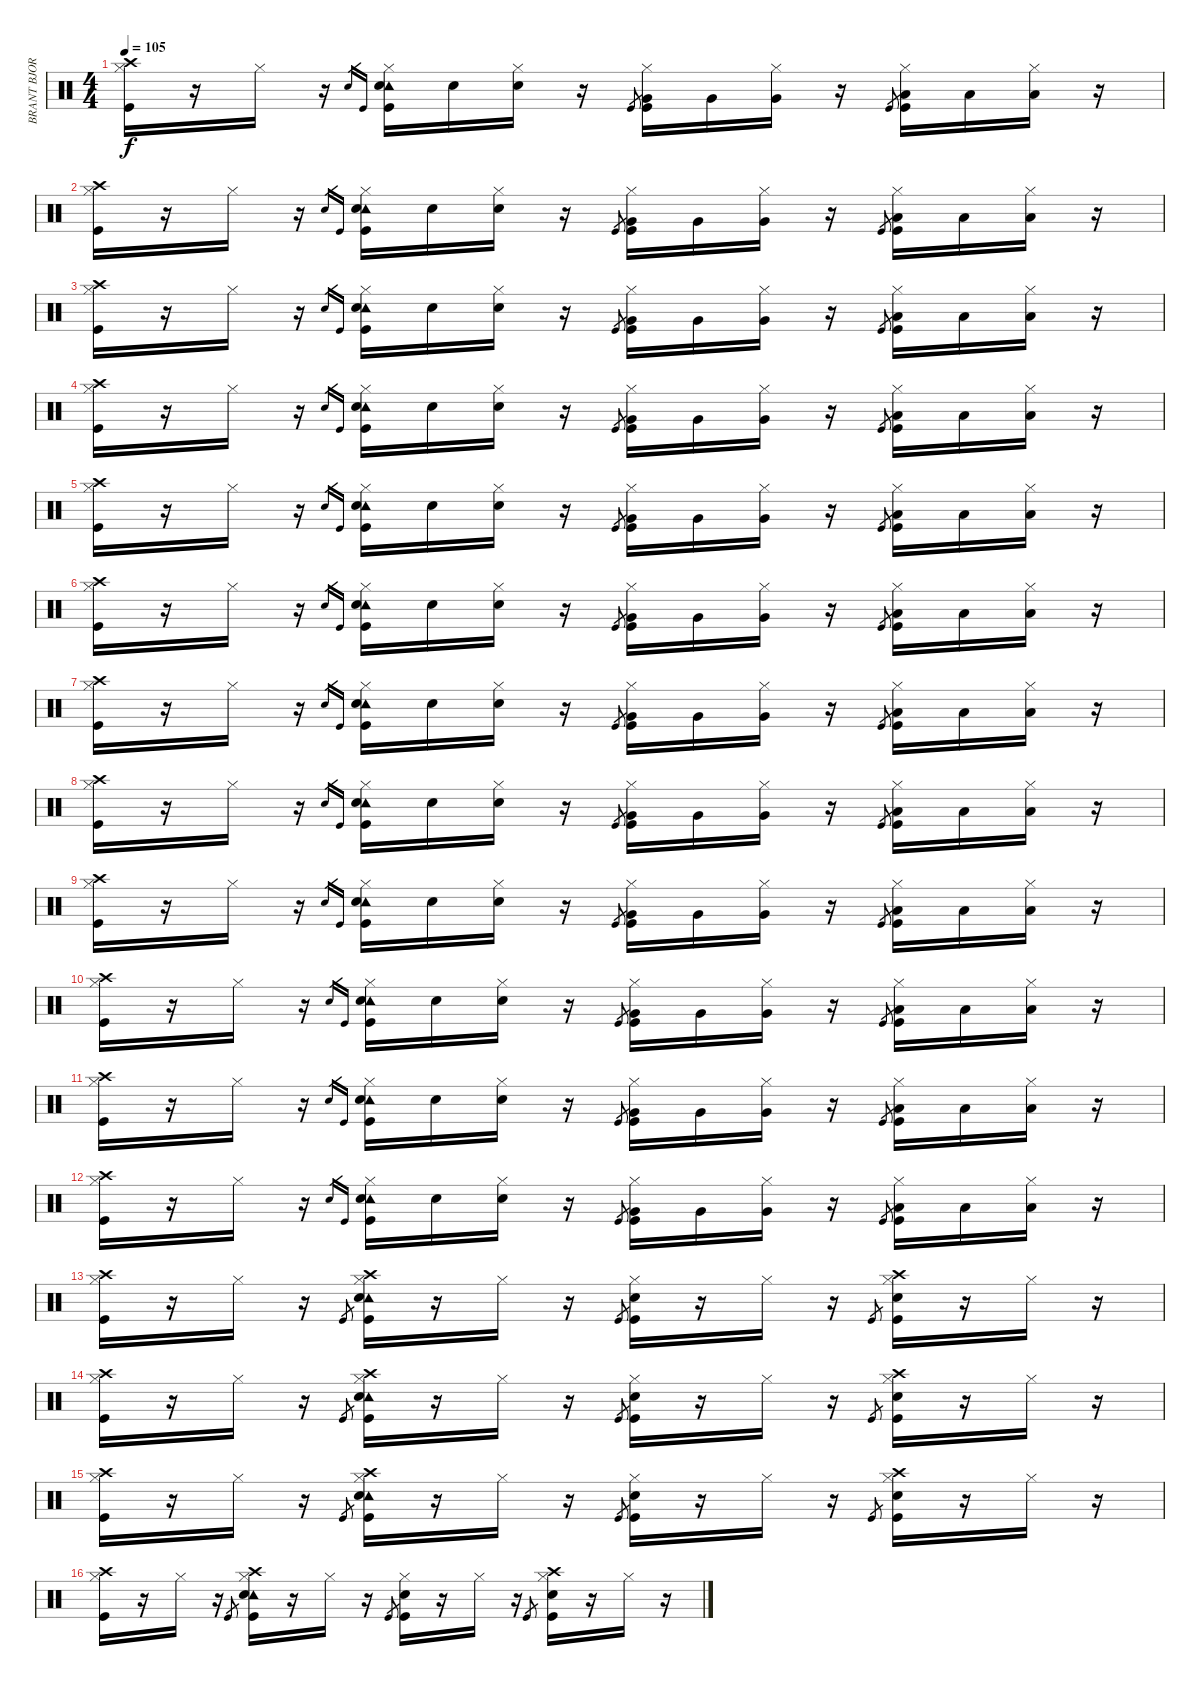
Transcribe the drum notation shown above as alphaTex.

\track ("BRANT BJORK -  DRUMS" "BRANT BJOR") {instrument percussion}
\staff {score}
\articulation defaults
\ts (4 4)
\tempo 105
\clef neutral
\ks c
("Crash high (hit)" "Hi-Hat (closed)" "Kick (hit)").16{dy f} r.16 "Hi-Hat (closed)".16 r.16 "Snare (hit) 2".16{gr} "Kick (hit)".16{gr} ("Tambourine (hit)" "Hi-Hat (closed)" "Snare (hit) 2" "Kick (hit)").16 "Snare (hit) 2".16 ("Hi-Hat (closed)" "Snare (hit) 2").16 r.16 "Kick (hit)".8{gr} ("Hi-Hat (closed)" "Very Low Tom (hit)" "Kick (hit)").16 "Very Low Tom (hit)".16 ("Hi-Hat (closed)" "Very Low Tom (hit)").16 r.16 "Kick (hit)".8{gr} ("Hi-Hat (closed)" "Low Floor Tom (hit)" "Kick (hit)").16 "Low Floor Tom (hit)".16 ("Hi-Hat (closed)" "Low Floor Tom (hit)").16 r.16 |
("Crash high (hit)" "Hi-Hat (closed)" "Kick (hit)").16 r.16 "Hi-Hat (closed)".16 r.16 "Snare (hit) 2".16{gr} "Kick (hit)".16{gr} ("Tambourine (hit)" "Hi-Hat (closed)" "Snare (hit) 2" "Kick (hit)").16 "Snare (hit) 2".16 ("Hi-Hat (closed)" "Snare (hit) 2").16 r.16 "Kick (hit)".8{gr} ("Hi-Hat (closed)" "Very Low Tom (hit)" "Kick (hit)").16 "Very Low Tom (hit)".16 ("Hi-Hat (closed)" "Very Low Tom (hit)").16 r.16 "Kick (hit)".8{gr} ("Hi-Hat (closed)" "Low Floor Tom (hit)" "Kick (hit)").16 "Low Floor Tom (hit)".16 ("Hi-Hat (closed)" "Low Floor Tom (hit)").16 r.16 |
("Crash high (hit)" "Hi-Hat (closed)" "Kick (hit)").16 r.16 "Hi-Hat (closed)".16 r.16 "Snare (hit) 2".16{gr} "Kick (hit)".16{gr} ("Tambourine (hit)" "Hi-Hat (closed)" "Snare (hit) 2" "Kick (hit)").16 "Snare (hit) 2".16 ("Hi-Hat (closed)" "Snare (hit) 2").16 r.16 "Kick (hit)".8{gr} ("Hi-Hat (closed)" "Very Low Tom (hit)" "Kick (hit)").16 "Very Low Tom (hit)".16 ("Hi-Hat (closed)" "Very Low Tom (hit)").16 r.16 "Kick (hit)".8{gr} ("Hi-Hat (closed)" "Low Floor Tom (hit)" "Kick (hit)").16 "Low Floor Tom (hit)".16 ("Hi-Hat (closed)" "Low Floor Tom (hit)").16 r.16 |
("Crash high (hit)" "Hi-Hat (closed)" "Kick (hit)").16 r.16 "Hi-Hat (closed)".16 r.16 "Snare (hit) 2".16{gr} "Kick (hit)".16{gr} ("Tambourine (hit)" "Hi-Hat (closed)" "Snare (hit) 2" "Kick (hit)").16 "Snare (hit) 2".16 ("Hi-Hat (closed)" "Snare (hit) 2").16 r.16 "Kick (hit)".8{gr} ("Hi-Hat (closed)" "Very Low Tom (hit)" "Kick (hit)").16 "Very Low Tom (hit)".16 ("Hi-Hat (closed)" "Very Low Tom (hit)").16 r.16 "Kick (hit)".8{gr} ("Hi-Hat (closed)" "Low Floor Tom (hit)" "Kick (hit)").16 "Low Floor Tom (hit)".16 ("Hi-Hat (closed)" "Low Floor Tom (hit)").16 r.16 |
("Crash high (hit)" "Hi-Hat (closed)" "Kick (hit)").16 r.16 "Hi-Hat (closed)".16 r.16 "Snare (hit) 2".16{gr} "Kick (hit)".16{gr} ("Tambourine (hit)" "Hi-Hat (closed)" "Snare (hit) 2" "Kick (hit)").16 "Snare (hit) 2".16 ("Hi-Hat (closed)" "Snare (hit) 2").16 r.16 "Kick (hit)".8{gr} ("Hi-Hat (closed)" "Very Low Tom (hit)" "Kick (hit)").16 "Very Low Tom (hit)".16 ("Hi-Hat (closed)" "Very Low Tom (hit)").16 r.16 "Kick (hit)".8{gr} ("Hi-Hat (closed)" "Low Floor Tom (hit)" "Kick (hit)").16 "Low Floor Tom (hit)".16 ("Hi-Hat (closed)" "Low Floor Tom (hit)").16 r.16 |
("Crash high (hit)" "Hi-Hat (closed)" "Kick (hit)").16 r.16 "Hi-Hat (closed)".16 r.16 "Snare (hit) 2".16{gr} "Kick (hit)".16{gr} ("Tambourine (hit)" "Hi-Hat (closed)" "Snare (hit) 2" "Kick (hit)").16 "Snare (hit) 2".16 ("Hi-Hat (closed)" "Snare (hit) 2").16 r.16 "Kick (hit)".8{gr} ("Hi-Hat (closed)" "Very Low Tom (hit)" "Kick (hit)").16 "Very Low Tom (hit)".16 ("Hi-Hat (closed)" "Very Low Tom (hit)").16 r.16 "Kick (hit)".8{gr} ("Hi-Hat (closed)" "Low Floor Tom (hit)" "Kick (hit)").16 "Low Floor Tom (hit)".16 ("Hi-Hat (closed)" "Low Floor Tom (hit)").16 r.16 |
("Crash high (hit)" "Hi-Hat (closed)" "Kick (hit)").16 r.16 "Hi-Hat (closed)".16 r.16 "Snare (hit) 2".16{gr} "Kick (hit)".16{gr} ("Tambourine (hit)" "Hi-Hat (closed)" "Snare (hit) 2" "Kick (hit)").16 "Snare (hit) 2".16 ("Hi-Hat (closed)" "Snare (hit) 2").16 r.16 "Kick (hit)".8{gr} ("Hi-Hat (closed)" "Very Low Tom (hit)" "Kick (hit)").16 "Very Low Tom (hit)".16 ("Hi-Hat (closed)" "Very Low Tom (hit)").16 r.16 "Kick (hit)".8{gr} ("Hi-Hat (closed)" "Low Floor Tom (hit)" "Kick (hit)").16 "Low Floor Tom (hit)".16 ("Hi-Hat (closed)" "Low Floor Tom (hit)").16 r.16 |
("Crash high (hit)" "Hi-Hat (closed)" "Kick (hit)").16 r.16 "Hi-Hat (closed)".16 r.16 "Snare (hit) 2".16{gr} "Kick (hit)".16{gr} ("Tambourine (hit)" "Hi-Hat (closed)" "Snare (hit) 2" "Kick (hit)").16 "Snare (hit) 2".16 ("Hi-Hat (closed)" "Snare (hit) 2").16 r.16 "Kick (hit)".8{gr} ("Hi-Hat (closed)" "Very Low Tom (hit)" "Kick (hit)").16 "Very Low Tom (hit)".16 ("Hi-Hat (closed)" "Very Low Tom (hit)").16 r.16 "Kick (hit)".8{gr} ("Hi-Hat (closed)" "Low Floor Tom (hit)" "Kick (hit)").16 "Low Floor Tom (hit)".16 ("Hi-Hat (closed)" "Low Floor Tom (hit)").16 r.16 |
("Crash high (hit)" "Hi-Hat (closed)" "Kick (hit)").16 r.16 "Hi-Hat (closed)".16 r.16 "Snare (hit) 2".16{gr} "Kick (hit)".16{gr} ("Tambourine (hit)" "Hi-Hat (closed)" "Snare (hit) 2" "Kick (hit)").16 "Snare (hit) 2".16 ("Hi-Hat (closed)" "Snare (hit) 2").16 r.16 "Kick (hit)".8{gr} ("Hi-Hat (closed)" "Very Low Tom (hit)" "Kick (hit)").16 "Very Low Tom (hit)".16 ("Hi-Hat (closed)" "Very Low Tom (hit)").16 r.16 "Kick (hit)".8{gr} ("Hi-Hat (closed)" "Low Floor Tom (hit)" "Kick (hit)").16 "Low Floor Tom (hit)".16 ("Hi-Hat (closed)" "Low Floor Tom (hit)").16 r.16 |
("Crash high (hit)" "Hi-Hat (closed)" "Kick (hit)").16 r.16 "Hi-Hat (closed)".16 r.16 "Snare (hit) 2".16{gr} "Kick (hit)".16{gr} ("Tambourine (hit)" "Hi-Hat (closed)" "Snare (hit) 2" "Kick (hit)").16 "Snare (hit) 2".16 ("Hi-Hat (closed)" "Snare (hit) 2").16 r.16 "Kick (hit)".8{gr} ("Hi-Hat (closed)" "Very Low Tom (hit)" "Kick (hit)").16 "Very Low Tom (hit)".16 ("Hi-Hat (closed)" "Very Low Tom (hit)").16 r.16 "Kick (hit)".8{gr} ("Hi-Hat (closed)" "Low Floor Tom (hit)" "Kick (hit)").16 "Low Floor Tom (hit)".16 ("Hi-Hat (closed)" "Low Floor Tom (hit)").16 r.16 |
("Crash high (hit)" "Hi-Hat (closed)" "Kick (hit)").16 r.16 "Hi-Hat (closed)".16 r.16 "Snare (hit) 2".16{gr} "Kick (hit)".16{gr} ("Tambourine (hit)" "Hi-Hat (closed)" "Snare (hit) 2" "Kick (hit)").16 "Snare (hit) 2".16 ("Hi-Hat (closed)" "Snare (hit) 2").16 r.16 "Kick (hit)".8{gr} ("Hi-Hat (closed)" "Very Low Tom (hit)" "Kick (hit)").16 "Very Low Tom (hit)".16 ("Hi-Hat (closed)" "Very Low Tom (hit)").16 r.16 "Kick (hit)".8{gr} ("Hi-Hat (closed)" "Low Floor Tom (hit)" "Kick (hit)").16 "Low Floor Tom (hit)".16 ("Hi-Hat (closed)" "Low Floor Tom (hit)").16 r.16 |
("Crash high (hit)" "Hi-Hat (closed)" "Kick (hit)").16 r.16 "Hi-Hat (closed)".16 r.16 "Snare (hit) 2".16{gr} "Kick (hit)".16{gr} ("Tambourine (hit)" "Hi-Hat (closed)" "Snare (hit) 2" "Kick (hit)").16 "Snare (hit) 2".16 ("Hi-Hat (closed)" "Snare (hit) 2").16 r.16 "Kick (hit)".8{gr} ("Hi-Hat (closed)" "Very Low Tom (hit)" "Kick (hit)").16 "Very Low Tom (hit)".16 ("Hi-Hat (closed)" "Very Low Tom (hit)").16 r.16 "Kick (hit)".8{gr} ("Hi-Hat (closed)" "Low Floor Tom (hit)" "Kick (hit)").16 "Low Floor Tom (hit)".16 ("Hi-Hat (closed)" "Low Floor Tom (hit)").16 r.16 |
("Crash high (hit)" "Hi-Hat (closed)" "Kick (hit)").16 r.16 "Hi-Hat (closed)".16 r.16 "Kick (hit)".8{gr} ("Crash high (hit)" "Hi-Hat (closed)" "Tambourine (hit)" "Snare (hit) 2" "Kick (hit)").16 r.16 "Hi-Hat (closed)".16 r.16 "Kick (hit)".8{gr} ("Hi-Hat (closed)" "Snare (hit) 2" "Kick (hit)").16 r.16 "Hi-Hat (closed)".16 r.16 "Kick (hit)".8{gr} ("Crash high (hit)" "Hi-Hat (closed)" "Snare (hit) 2" "Kick (hit)").16 r.16 "Hi-Hat (closed)".16 r.16 |
("Crash high (hit)" "Hi-Hat (closed)" "Kick (hit)").16 r.16 "Hi-Hat (closed)".16 r.16 "Kick (hit)".8{gr} ("Crash high (hit)" "Hi-Hat (closed)" "Tambourine (hit)" "Snare (hit) 2" "Kick (hit)").16 r.16 "Hi-Hat (closed)".16 r.16 "Kick (hit)".8{gr} ("Hi-Hat (closed)" "Snare (hit) 2" "Kick (hit)").16 r.16 "Hi-Hat (closed)".16 r.16 "Kick (hit)".8{gr} ("Crash high (hit)" "Hi-Hat (closed)" "Snare (hit) 2" "Kick (hit)").16 r.16 "Hi-Hat (closed)".16 r.16 |
("Crash high (hit)" "Hi-Hat (closed)" "Kick (hit)").16 r.16 "Hi-Hat (closed)".16 r.16 "Kick (hit)".8{gr} ("Crash high (hit)" "Hi-Hat (closed)" "Tambourine (hit)" "Snare (hit) 2" "Kick (hit)").16 r.16 "Hi-Hat (closed)".16 r.16 "Kick (hit)".8{gr} ("Hi-Hat (closed)" "Snare (hit) 2" "Kick (hit)").16 r.16 "Hi-Hat (closed)".16 r.16 "Kick (hit)".8{gr} ("Crash high (hit)" "Hi-Hat (closed)" "Snare (hit) 2" "Kick (hit)").16 r.16 "Hi-Hat (closed)".16 r.16 |
("Crash high (hit)" "Hi-Hat (closed)" "Kick (hit)").16 r.16 "Hi-Hat (closed)".16 r.16 "Kick (hit)".8{gr} ("Crash high (hit)" "Hi-Hat (closed)" "Tambourine (hit)" "Snare (hit) 2" "Kick (hit)").16 r.16 "Hi-Hat (closed)".16 r.16 "Kick (hit)".8{gr} ("Hi-Hat (closed)" "Snare (hit) 2" "Kick (hit)").16 r.16 "Hi-Hat (closed)".16 r.16 "Kick (hit)".8{gr} ("Crash high (hit)" "Hi-Hat (closed)" "Snare (hit) 2" "Kick (hit)").16 r.16 "Hi-Hat (closed)".16 r.16
